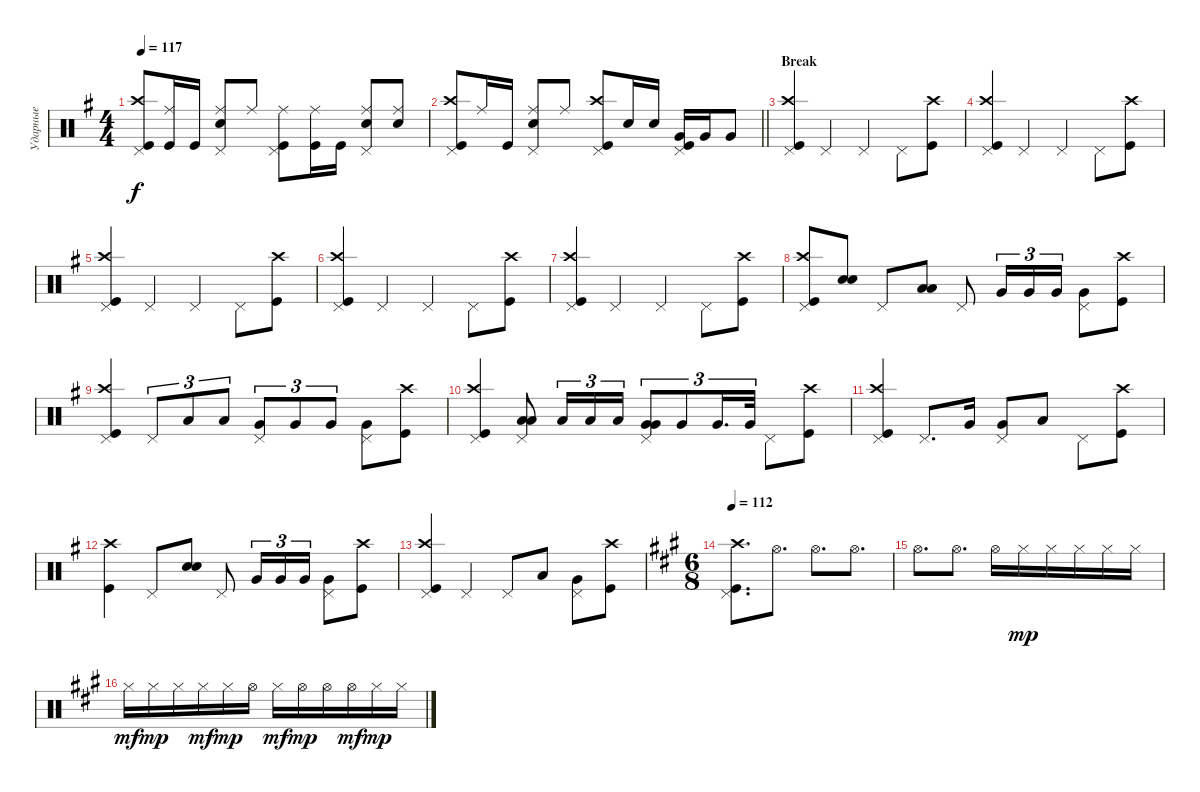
\track ("Ударные" "Ударные") {instrument percussion}
\staff {score}
\articulation defaults
\ts (4 4)
\tempo 117
\clef neutral
\ks eminor
("Kick (hit)" "Crash high (hit)" "Pedal Hi-Hat (hit)").8{dy f} ("Ride (middle)" "Kick (hit)").16 "Kick (hit)".16 ("Ride (middle)" "Snare (hit) 2" "Pedal Hi-Hat (hit)").8 "Ride (middle)".8 ("Kick (hit)" "Ride (middle)" "Pedal Hi-Hat (hit)").8 ("Ride (middle)" "Kick (hit)").16 "Kick (hit)".16 ("Ride (middle)" "Snare (hit) 2" "Pedal Hi-Hat (hit)").8 ("Ride (middle)" "Snare (hit) 2").8 |
\barLineRight lightlight
("Kick (hit)" "Crash high (hit)" "Pedal Hi-Hat (hit)").8 "Ride (middle)".16 "Kick (hit)".16 ("Ride (middle)" "Snare (hit) 2" "Pedal Hi-Hat (hit)").8 "Ride (middle)".8 ("Crash high (hit)" "Kick (hit)" "Pedal Hi-Hat (hit)").8 "Snare (hit) 2".16 "Snare (hit) 2".16 ("Kick (hit)" "Very Low Tom (hit)" "Pedal Hi-Hat (hit)").16 "Very Low Tom (hit)".16 "Very Low Tom (hit)".8 |
\section ("" "Break")
("Kick (hit)" "Crash high (hit)" "Pedal Hi-Hat (hit)").4 "Pedal Hi-Hat (hit)".4 "Pedal Hi-Hat (hit)".4 "Pedal Hi-Hat (hit)".8 ("Kick (hit)" "Crash high (hit)").8 |
("Crash high (hit)" "Kick (hit)" "Pedal Hi-Hat (hit)").4 "Pedal Hi-Hat (hit)".4 "Pedal Hi-Hat (hit)".4 "Pedal Hi-Hat (hit)".8 ("Kick (hit)" "Crash high (hit)").8 |
("Crash high (hit)" "Kick (hit)" "Pedal Hi-Hat (hit)").4 "Pedal Hi-Hat (hit)".4 "Pedal Hi-Hat (hit)".4 "Pedal Hi-Hat (hit)".8 ("Kick (hit)" "Crash high (hit)").8 |
("Crash high (hit)" "Kick (hit)" "Pedal Hi-Hat (hit)").4 "Pedal Hi-Hat (hit)".4 "Pedal Hi-Hat (hit)".4 "Pedal Hi-Hat (hit)".8 ("Kick (hit)" "Crash high (hit)").8 |
("Crash high (hit)" "Kick (hit)" "Pedal Hi-Hat (hit)").4 "Pedal Hi-Hat (hit)".4 "Pedal Hi-Hat (hit)".4 "Pedal Hi-Hat (hit)".8 ("Kick (hit)" "Crash high (hit)").8 |
("Crash high (hit)" "Kick (hit)" "Pedal Hi-Hat (hit)").8 ("Snare (hit) 2" "Snare (hit) 2").8{bd 240} "Pedal Hi-Hat (hit)".8 ("Low Tom (hit)" "Low Tom (hit)").8{bd 240} "Pedal Hi-Hat (hit)".8 "Very Low Tom (hit)".16{tu (3 2)} "Very Low Tom (hit)".16{tu (3 2)} "Very Low Tom (hit)".16{tu (3 2)} ("Pedal Hi-Hat (hit)" "Very Low Tom (hit)").8 ("Kick (hit)" "Crash high (hit)").8 |
("Kick (hit)" "Crash high (hit)" "Pedal Hi-Hat (hit)").4 "Pedal Hi-Hat (hit)".8{tu (3 2)} "Low Tom (hit)".8{tu (3 2)} "Low Tom (hit)".8{tu (3 2)} ("Pedal Hi-Hat (hit)" "Very Low Tom (hit)").8{tu (3 2)} "Very Low Tom (hit)".8{tu (3 2)} "Very Low Tom (hit)".8{tu (3 2)} ("Pedal Hi-Hat (hit)" "Very Low Tom (hit)").8 ("Kick (hit)" "Crash high (hit)").8 |
("Crash high (hit)" "Kick (hit)" "Pedal Hi-Hat (hit)").4 ("Low Tom (hit)" "Low Tom (hit)" "Pedal Hi-Hat (hit)").8 "Low Tom (hit)".16{tu (3 2)} "Low Tom (hit)".16{tu (3 2)} "Low Tom (hit)".16{tu (3 2)} ("Pedal Hi-Hat (hit)" "Very Low Tom (hit)" "Very Low Tom (hit)").8{tu (3 2)} "Very Low Tom (hit)".8{tu (3 2)} "Very Low Tom (hit)".16{d tu (3 2)} "Very Low Tom (hit)".32{tu (3 2)} "Pedal Hi-Hat (hit)".8 ("Kick (hit)" "Crash high (hit)").8 |
("Kick (hit)" "Crash high (hit)" "Pedal Hi-Hat (hit)").4 "Pedal Hi-Hat (hit)".8{d} "Very Low Tom (hit)".16 ("Very Low Tom (hit)" "Pedal Hi-Hat (hit)").8 "Low Floor Tom (hit)".8 "Pedal Hi-Hat (hit)".8 ("Kick (hit)" "Crash high (hit)").8 |
("Crash high (hit)" "Kick (hit)").4 "Pedal Hi-Hat (hit)".8 ("Snare (hit) 2" "Snare (hit) 2").8 "Pedal Hi-Hat (hit)".8 "Very Low Tom (hit)".16{tu (3 2)} "Very Low Tom (hit)".16{tu (3 2)} "Very Low Tom (hit)".16{tu (3 2)} ("Pedal Hi-Hat (hit)" "Very Low Tom (hit)").8 ("Kick (hit)" "Crash high (hit)").8 |
("Kick (hit)" "Crash high (hit)" "Pedal Hi-Hat (hit)").4 "Pedal Hi-Hat (hit)".4 "Pedal Hi-Hat (hit)".8 "Low Tom (hit)".8 ("Pedal Hi-Hat (hit)" "Very Low Tom (hit)").8 ("Kick (hit)" "Crash high (hit)").8 |
\ts (6 8)
\tempo 112
\ks f#minor
("Kick (hit)" "Crash high (hit)" "Pedal Hi-Hat (hit)").8{d} "Hi-Hat (open)".8{d} "Hi-Hat (open)".8{d} "Hi-Hat (open)".8{d} |
"Hi-Hat (open)".8{d} "Hi-Hat (open)".8{d} "Hi-Hat (open)".16 "Hi-Hat (closed)".16{dy mp} "Hi-Hat (closed)".16 "Hi-Hat (closed)".16 "Hi-Hat (closed)".16 "Hi-Hat (closed)".16 |
"Hi-Hat (closed)".16{dy mf} "Hi-Hat (closed)".16{dy mp} "Hi-Hat (closed)".16 "Hi-Hat (closed)".16{dy mf} "Hi-Hat (closed)".16{dy mp} "Hi-Hat (open)".16 "Hi-Hat (closed)".16{dy mf} "Hi-Hat (open)".16{dy mp} "Hi-Hat (open)".16 "Hi-Hat (open)".16{dy mf} "Hi-Hat (closed)".16{dy mp} "Hi-Hat (closed)".16
